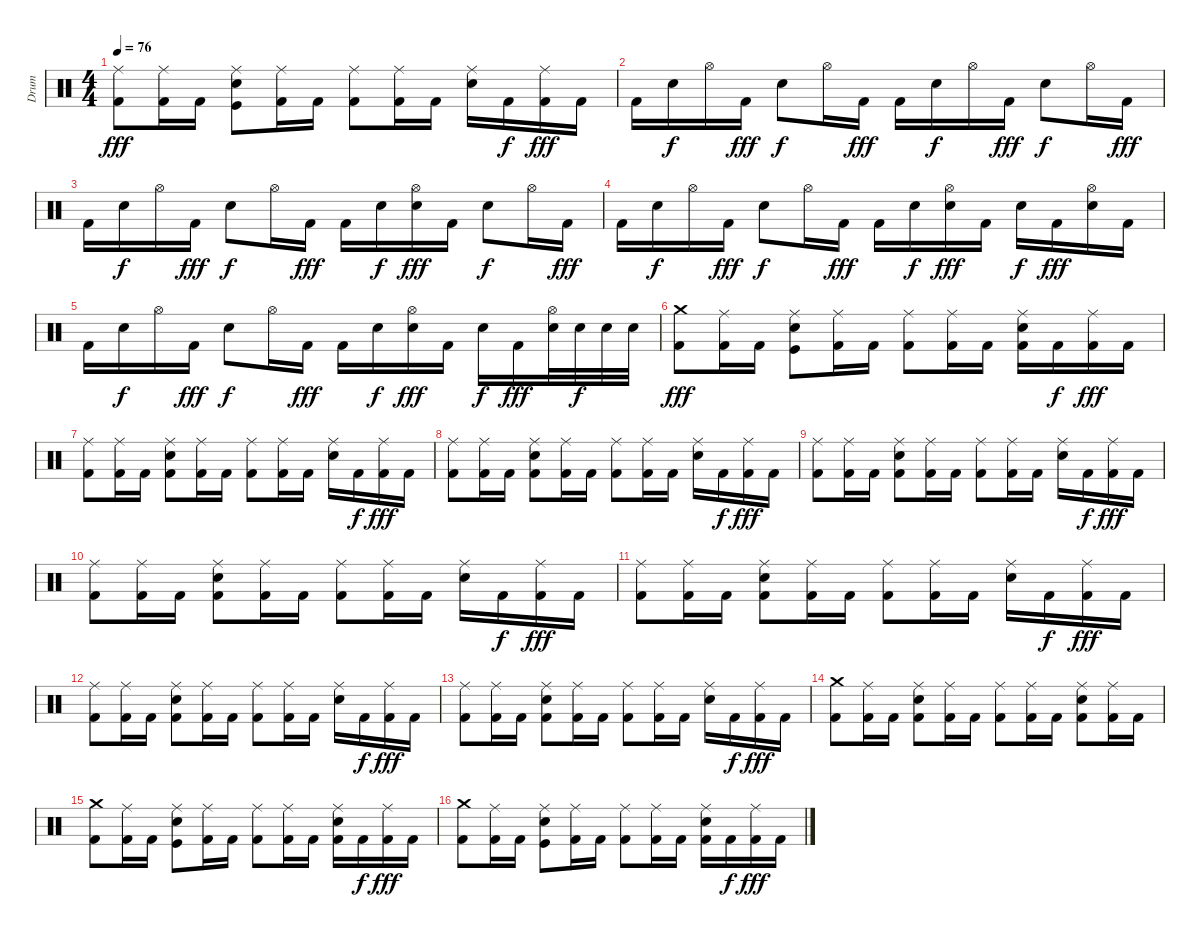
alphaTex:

\track ("Drum" "Drum") {instrument percussion}
\staff {score}
\articulation defaults
\ts (4 4)
\tempo 76
\clef neutral
\ks c
("Kick (hit) 2" "Ride (middle)").8{dy fff} ("Kick (hit) 2" "Ride (middle)").16 "Kick (hit) 2".16 ("Kick (hit)" "Electric Snare (hit)" "Ride (middle)").8 ("Kick (hit) 2" "Ride (middle)").16 "Kick (hit) 2".16 ("Kick (hit) 2" "Ride (middle)").8 ("Kick (hit) 2" "Ride (middle)").16 "Kick (hit) 2".16 ("Electric Snare (hit)" "Ride (middle)").16 "Kick (hit) 2".16{dy f} ("Kick (hit) 2" "Ride (middle)").16{dy fff} "Kick (hit) 2".16 |
"Kick (hit) 2".16 "Electric Snare (hit)".16{dy f} "Hi-Hat (open)".16 "Kick (hit) 2".16{dy fff} "Electric Snare (hit)".8{dy f} "Hi-Hat (open)".16 "Kick (hit) 2".16{dy fff} "Kick (hit) 2".16 "Electric Snare (hit)".16{dy f} "Hi-Hat (open)".16 "Kick (hit) 2".16{dy fff} "Electric Snare (hit)".8{dy f} "Hi-Hat (open)".16 "Kick (hit) 2".16{dy fff} |
"Kick (hit) 2".16 "Electric Snare (hit)".16{dy f} "Hi-Hat (open)".16 "Kick (hit) 2".16{dy fff} "Electric Snare (hit)".8{dy f} "Hi-Hat (open)".16 "Kick (hit) 2".16{dy fff} "Kick (hit) 2".16 "Electric Snare (hit)".16{dy f} ("Electric Snare (hit)" "Hi-Hat (open)").16{dy fff} "Kick (hit) 2".16 "Electric Snare (hit)".8{dy f} "Hi-Hat (open)".16 "Kick (hit) 2".16{dy fff} |
"Kick (hit) 2".16 "Electric Snare (hit)".16{dy f} "Hi-Hat (open)".16 "Kick (hit) 2".16{dy fff} "Electric Snare (hit)".8{dy f} "Hi-Hat (open)".16 "Kick (hit) 2".16{dy fff} "Kick (hit) 2".16 "Electric Snare (hit)".16{dy f} ("Electric Snare (hit)" "Hi-Hat (open)").16{dy fff} "Kick (hit) 2".16 "Electric Snare (hit)".16{dy f} "Kick (hit) 2".16{dy fff} ("Electric Snare (hit)" "Hi-Hat (open)").16 "Kick (hit) 2".16 |
"Kick (hit) 2".16 "Electric Snare (hit)".16{dy f} "Hi-Hat (open)".16 "Kick (hit) 2".16{dy fff} "Electric Snare (hit)".8{dy f} "Hi-Hat (open)".16 "Kick (hit) 2".16{dy fff} "Kick (hit) 2".16 "Electric Snare (hit)".16{dy f} ("Electric Snare (hit)" "Hi-Hat (open)").16{dy fff} "Kick (hit) 2".16 "Electric Snare (hit)".16{dy f} "Kick (hit) 2".16{dy fff} ("Electric Snare (hit)" "Hi-Hat (open)").32 "Electric Snare (hit)".32{dy f} "Electric Snare (hit)".32 "Electric Snare (hit)".32 |
("Kick (hit) 2" "Crash medium (hit)").8{dy fff} ("Kick (hit) 2" "Ride (middle)").16 "Kick (hit) 2".16 ("Kick (hit)" "Electric Snare (hit)" "Ride (middle)").8 ("Kick (hit) 2" "Ride (middle)").16 "Kick (hit) 2".16 ("Kick (hit) 2" "Ride (middle)").8 ("Kick (hit) 2" "Ride (middle)").16 "Kick (hit) 2".16 ("Kick (hit) 2" "Electric Snare (hit)" "Ride (middle)").16 "Kick (hit) 2".16{dy f} ("Kick (hit) 2" "Ride (middle)").16{dy fff} "Kick (hit) 2".16 |
("Kick (hit) 2" "Ride (middle)").8 ("Kick (hit) 2" "Ride (middle)").16 "Kick (hit) 2".16 ("Kick (hit) 2" "Electric Snare (hit)" "Ride (middle)").8 ("Kick (hit) 2" "Ride (middle)").16 "Kick (hit) 2".16 ("Kick (hit) 2" "Ride (middle)").8 ("Kick (hit) 2" "Ride (middle)").16 "Kick (hit) 2".16 ("Electric Snare (hit)" "Ride (middle)").16 "Kick (hit) 2".16{dy f} ("Kick (hit) 2" "Ride (middle)").16{dy fff} "Kick (hit) 2".16 |
("Kick (hit) 2" "Ride (middle)").8 ("Kick (hit) 2" "Ride (middle)").16 "Kick (hit) 2".16 ("Kick (hit) 2" "Electric Snare (hit)" "Ride (middle)").8 ("Kick (hit) 2" "Ride (middle)").16 "Kick (hit) 2".16 ("Kick (hit) 2" "Ride (middle)").8 ("Kick (hit) 2" "Ride (middle)").16 "Kick (hit) 2".16 ("Electric Snare (hit)" "Ride (middle)").16 "Kick (hit) 2".16{dy f} ("Kick (hit) 2" "Ride (middle)").16{dy fff} "Kick (hit) 2".16 |
("Kick (hit) 2" "Ride (middle)").8 ("Kick (hit) 2" "Ride (middle)").16 "Kick (hit) 2".16 ("Kick (hit) 2" "Electric Snare (hit)" "Ride (middle)").8 ("Kick (hit) 2" "Ride (middle)").16 "Kick (hit) 2".16 ("Kick (hit) 2" "Ride (middle)").8 ("Kick (hit) 2" "Ride (middle)").16 "Kick (hit) 2".16 ("Electric Snare (hit)" "Ride (middle)").16 "Kick (hit) 2".16{dy f} ("Kick (hit) 2" "Ride (middle)").16{dy fff} "Kick (hit) 2".16 |
("Kick (hit) 2" "Ride (middle)").8 ("Kick (hit) 2" "Ride (middle)").16 "Kick (hit) 2".16 ("Kick (hit) 2" "Electric Snare (hit)" "Ride (middle)").8 ("Kick (hit) 2" "Ride (middle)").16 "Kick (hit) 2".16 ("Kick (hit) 2" "Ride (middle)").8 ("Kick (hit) 2" "Ride (middle)").16 "Kick (hit) 2".16 ("Electric Snare (hit)" "Ride (middle)").16 "Kick (hit) 2".16{dy f} ("Kick (hit) 2" "Ride (middle)").16{dy fff} "Kick (hit) 2".16 |
("Kick (hit) 2" "Ride (middle)").8 ("Kick (hit) 2" "Ride (middle)").16 "Kick (hit) 2".16 ("Kick (hit) 2" "Electric Snare (hit)" "Ride (middle)").8 ("Kick (hit) 2" "Ride (middle)").16 "Kick (hit) 2".16 ("Kick (hit) 2" "Ride (middle)").8 ("Kick (hit) 2" "Ride (middle)").16 "Kick (hit) 2".16 ("Electric Snare (hit)" "Ride (middle)").16 "Kick (hit) 2".16{dy f} ("Kick (hit) 2" "Ride (middle)").16{dy fff} "Kick (hit) 2".16 |
("Kick (hit) 2" "Ride (middle)").8 ("Kick (hit) 2" "Ride (middle)").16 "Kick (hit) 2".16 ("Kick (hit) 2" "Electric Snare (hit)" "Ride (middle)").8 ("Kick (hit) 2" "Ride (middle)").16 "Kick (hit) 2".16 ("Kick (hit) 2" "Ride (middle)").8 ("Kick (hit) 2" "Ride (middle)").16 "Kick (hit) 2".16 ("Electric Snare (hit)" "Ride (middle)").16 "Kick (hit) 2".16{dy f} ("Kick (hit) 2" "Ride (middle)").16{dy fff} "Kick (hit) 2".16 |
("Kick (hit) 2" "Ride (middle)").8 ("Kick (hit) 2" "Ride (middle)").16 "Kick (hit) 2".16 ("Kick (hit) 2" "Electric Snare (hit)" "Ride (middle)").8 ("Kick (hit) 2" "Ride (middle)").16 "Kick (hit) 2".16 ("Kick (hit) 2" "Ride (middle)").8 ("Kick (hit) 2" "Ride (middle)").16 "Kick (hit) 2".16 ("Electric Snare (hit)" "Ride (middle)").16 "Kick (hit) 2".16{dy f} ("Kick (hit) 2" "Ride (middle)").16{dy fff} "Kick (hit) 2".16 |
("Kick (hit) 2" "Crash medium (hit)").8 ("Kick (hit) 2" "Ride (middle)").16 "Kick (hit) 2".16 ("Kick (hit) 2" "Electric Snare (hit)" "Ride (middle)").8 ("Kick (hit) 2" "Ride (middle)").16 "Kick (hit) 2".16 ("Kick (hit) 2" "Ride (middle)").8 ("Kick (hit) 2" "Ride (middle)").16 "Kick (hit) 2".16 ("Kick (hit) 2" "Electric Snare (hit)" "Ride (middle)").8 ("Kick (hit) 2" "Ride (middle)").16 "Kick (hit) 2".16 |
("Kick (hit) 2" "Crash medium (hit)").8 ("Kick (hit) 2" "Ride (middle)").16 "Kick (hit) 2".16 ("Kick (hit)" "Electric Snare (hit)" "Ride (middle)").8 ("Kick (hit) 2" "Ride (middle)").16 "Kick (hit) 2".16 ("Kick (hit) 2" "Ride (middle)").8 ("Kick (hit) 2" "Ride (middle)").16 "Kick (hit) 2".16 ("Kick (hit) 2" "Electric Snare (hit)" "Ride (middle)").16 "Kick (hit) 2".16{dy f} ("Kick (hit) 2" "Ride (middle)").16{dy fff} "Kick (hit) 2".16 |
("Kick (hit) 2" "Crash medium (hit)").8 ("Kick (hit) 2" "Ride (middle)").16 "Kick (hit) 2".16 ("Kick (hit)" "Electric Snare (hit)" "Ride (middle)").8 ("Kick (hit) 2" "Ride (middle)").16 "Kick (hit) 2".16 ("Kick (hit) 2" "Ride (middle)").8 ("Kick (hit) 2" "Ride (middle)").16 "Kick (hit) 2".16 ("Kick (hit) 2" "Electric Snare (hit)" "Ride (middle)").16 "Kick (hit) 2".16{dy f} ("Kick (hit) 2" "Ride (middle)").16{dy fff} "Kick (hit) 2".16
